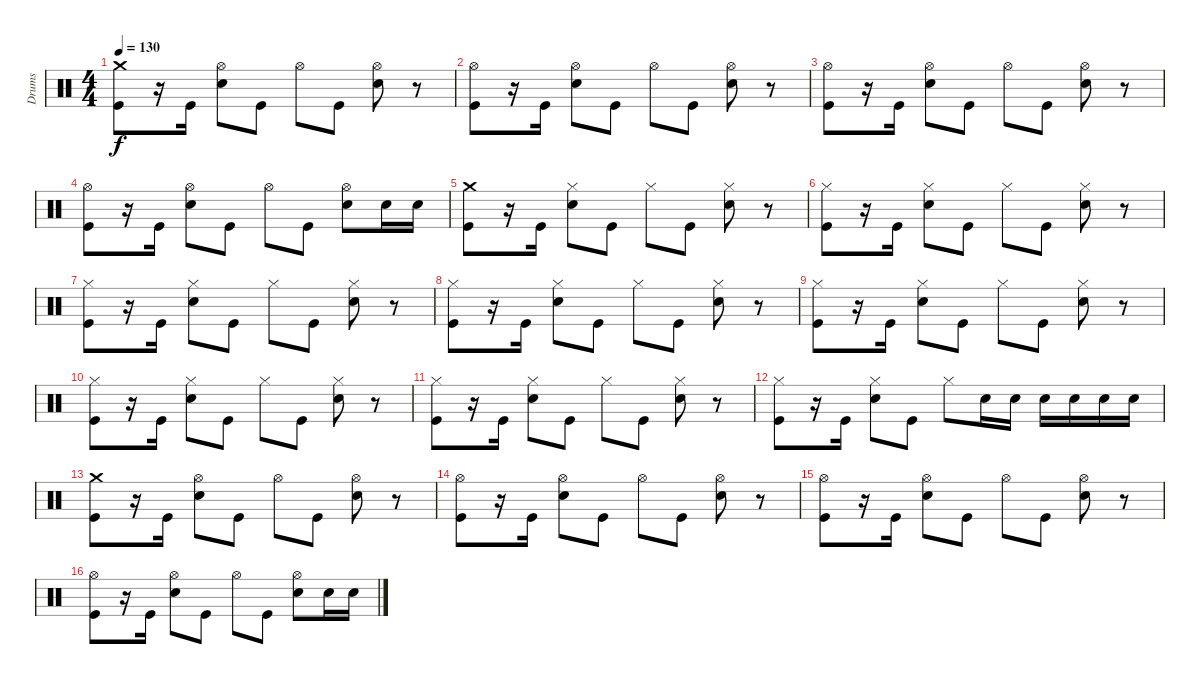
\track ("Drums" "Drums") {instrument percussion}
\staff {score}
\articulation defaults
\ts (4 4)
\tempo 130
\clef neutral
\ks c
("Crash medium (hit)" "Kick (hit)").8{dy f} r.16 "Kick (hit)".16 ("Hi-Hat (open)" "Snare (hit) 2").8 "Kick (hit)".8 "Hi-Hat (open)".8 "Kick (hit)".8 ("Hi-Hat (open)" "Snare (hit) 2").8 r.8 |
("Hi-Hat (open)" "Kick (hit)").8 r.16 "Kick (hit)".16 ("Hi-Hat (open)" "Snare (hit) 2").8 "Kick (hit)".8 "Hi-Hat (open)".8 "Kick (hit)".8 ("Hi-Hat (open)" "Snare (hit) 2").8 r.8 |
("Hi-Hat (open)" "Kick (hit)").8 r.16 "Kick (hit)".16 ("Hi-Hat (open)" "Snare (hit) 2").8 "Kick (hit)".8 "Hi-Hat (open)".8 "Kick (hit)".8 ("Hi-Hat (open)" "Snare (hit) 2").8 r.8 |
("Hi-Hat (open)" "Kick (hit)").8 r.16 "Kick (hit)".16 ("Hi-Hat (open)" "Snare (hit) 2").8 "Kick (hit)".8 "Hi-Hat (open)".8 "Kick (hit)".8 ("Hi-Hat (open)" "Snare (hit) 2").8 "Snare (hit) 2".16 "Snare (hit) 2".16 |
("Crash medium (hit)" "Kick (hit)").8 r.16 "Kick (hit)".16 ("Hi-Hat (closed)" "Snare (hit) 2").8 "Kick (hit)".8 "Hi-Hat (closed)".8 "Kick (hit)".8 ("Hi-Hat (closed)" "Snare (hit) 2").8 r.8 |
("Hi-Hat (closed)" "Kick (hit)").8 r.16 "Kick (hit)".16 ("Hi-Hat (closed)" "Snare (hit) 2").8 "Kick (hit)".8 "Hi-Hat (closed)".8 "Kick (hit)".8 ("Hi-Hat (closed)" "Snare (hit) 2").8 r.8 |
("Hi-Hat (closed)" "Kick (hit)").8 r.16 "Kick (hit)".16 ("Hi-Hat (closed)" "Snare (hit) 2").8 "Kick (hit)".8 "Hi-Hat (closed)".8 "Kick (hit)".8 ("Hi-Hat (closed)" "Snare (hit) 2").8 r.8 |
("Hi-Hat (closed)" "Kick (hit)").8 r.16 "Kick (hit)".16 ("Hi-Hat (closed)" "Snare (hit) 2").8 "Kick (hit)".8 "Hi-Hat (closed)".8 "Kick (hit)".8 ("Hi-Hat (closed)" "Snare (hit) 2").8 r.8 |
("Hi-Hat (closed)" "Kick (hit)").8 r.16 "Kick (hit)".16 ("Hi-Hat (closed)" "Snare (hit) 2").8 "Kick (hit)".8 "Hi-Hat (closed)".8 "Kick (hit)".8 ("Hi-Hat (closed)" "Snare (hit) 2").8 r.8 |
("Hi-Hat (closed)" "Kick (hit)").8 r.16 "Kick (hit)".16 ("Hi-Hat (closed)" "Snare (hit) 2").8 "Kick (hit)".8 "Hi-Hat (closed)".8 "Kick (hit)".8 ("Hi-Hat (closed)" "Snare (hit) 2").8 r.8 |
("Hi-Hat (closed)" "Kick (hit)").8 r.16 "Kick (hit)".16 ("Hi-Hat (closed)" "Snare (hit) 2").8 "Kick (hit)".8 "Hi-Hat (closed)".8 "Kick (hit)".8 ("Hi-Hat (closed)" "Snare (hit) 2").8 r.8 |
("Hi-Hat (closed)" "Kick (hit)").8 r.16 "Kick (hit)".16 ("Hi-Hat (closed)" "Snare (hit) 2").8 "Kick (hit)".8 "Hi-Hat (closed)".8 "Snare (hit) 2".16 "Snare (hit) 2".16 "Snare (hit) 2".16 "Snare (hit) 2".16 "Snare (hit) 2".16 "Snare (hit) 2".16 |
("Crash medium (hit)" "Kick (hit)").8 r.16 "Kick (hit)".16 ("Hi-Hat (open)" "Snare (hit) 2").8 "Kick (hit)".8 "Hi-Hat (open)".8 "Kick (hit)".8 ("Hi-Hat (open)" "Snare (hit) 2").8 r.8 |
("Hi-Hat (open)" "Kick (hit)").8 r.16 "Kick (hit)".16 ("Hi-Hat (open)" "Snare (hit) 2").8 "Kick (hit)".8 "Hi-Hat (open)".8 "Kick (hit)".8 ("Hi-Hat (open)" "Snare (hit) 2").8 r.8 |
("Hi-Hat (open)" "Kick (hit)").8 r.16 "Kick (hit)".16 ("Hi-Hat (open)" "Snare (hit) 2").8 "Kick (hit)".8 "Hi-Hat (open)".8 "Kick (hit)".8 ("Hi-Hat (open)" "Snare (hit) 2").8 r.8 |
("Hi-Hat (open)" "Kick (hit)").8 r.16 "Kick (hit)".16 ("Hi-Hat (open)" "Snare (hit) 2").8 "Kick (hit)".8 "Hi-Hat (open)".8 "Kick (hit)".8 ("Hi-Hat (open)" "Snare (hit) 2").8 "Snare (hit) 2".16 "Snare (hit) 2".16
